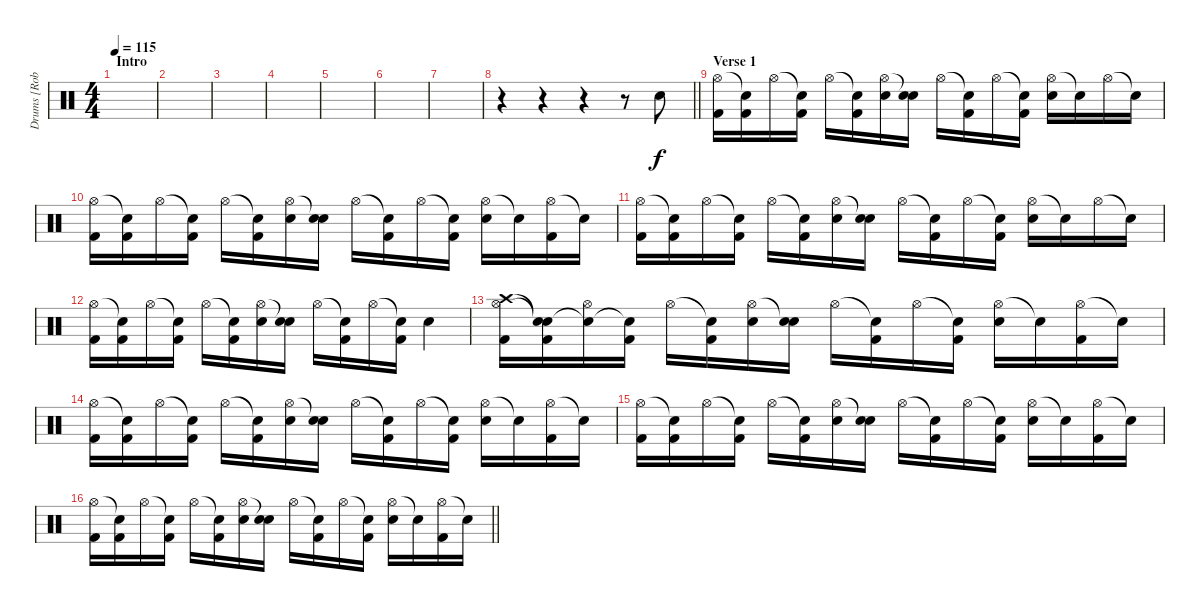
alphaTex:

\track ("Drums [Rob Bourdon]" "Drums [Rob") {instrument percussion}
\staff {score}
\articulation defaults
\ts (4 4)
\section ("" "Intro")
\tempo 115
\clef neutral
\ks c
|
|
|
|
|
|
|
\barLineRight lightlight
r.4 r.4 r.4 r.8 "Electric Snare (hit)".8 |
\section ("" "Verse 1")
("Hi-Hat (open)" "Kick (hit) 2").16 ("Snare (hit)"{t} "Kick (hit) 2").16 "Hi-Hat (open)".16 ("Snare (hit)"{t} "Kick (hit) 2").16 "Hi-Hat (open)".16 ("Snare (hit)"{t} "Kick (hit) 2").16 ("Hi-Hat (open)" "Electric Snare (hit)").16 ("Snare (hit)"{t} "Electric Snare (hit)").16 "Hi-Hat (open)".16 ("Snare (hit)"{t} "Kick (hit) 2").16 "Hi-Hat (open)".16 ("Snare (hit)"{t} "Kick (hit) 2").16 ("Hi-Hat (open)" "Electric Snare (hit)").16 "Snare (hit)"{t}.16 "Hi-Hat (open)".16 "Snare (hit)"{t}.16 |
("Hi-Hat (open)" "Kick (hit) 2").16 ("Snare (hit)"{t} "Kick (hit) 2").16 "Hi-Hat (open)".16 ("Snare (hit)"{t} "Kick (hit) 2").16 "Hi-Hat (open)".16 ("Snare (hit)"{t} "Kick (hit) 2").16 ("Hi-Hat (open)" "Electric Snare (hit)").16 ("Snare (hit)"{t} "Electric Snare (hit)").16 "Hi-Hat (open)".16 ("Snare (hit)"{t} "Kick (hit) 2").16 "Hi-Hat (open)".16 ("Snare (hit)"{t} "Kick (hit) 2").16 ("Hi-Hat (open)" "Electric Snare (hit)").16 "Snare (hit)"{t}.16 ("Hi-Hat (open)" "Kick (hit) 2").16 "Snare (hit)"{t}.16 |
("Hi-Hat (open)" "Kick (hit) 2").16 ("Snare (hit)"{t} "Kick (hit) 2").16 "Hi-Hat (open)".16 ("Snare (hit)"{t} "Kick (hit) 2").16 "Hi-Hat (open)".16 ("Snare (hit)"{t} "Kick (hit) 2").16 ("Hi-Hat (open)" "Electric Snare (hit)").16 ("Snare (hit)"{t} "Electric Snare (hit)").16 "Hi-Hat (open)".16 ("Snare (hit)"{t} "Kick (hit) 2").16 "Hi-Hat (open)".16 ("Snare (hit)"{t} "Kick (hit) 2").16 ("Hi-Hat (open)" "Electric Snare (hit)").16 "Snare (hit)"{t}.16 "Hi-Hat (open)".16 "Snare (hit)"{t}.16 |
("Hi-Hat (open)" "Kick (hit) 2").16 ("Snare (hit)"{t} "Kick (hit) 2").16 "Hi-Hat (open)".16 ("Snare (hit)"{t} "Kick (hit) 2").16 "Hi-Hat (open)".16 ("Snare (hit)"{t} "Kick (hit) 2").16 ("Hi-Hat (open)" "Electric Snare (hit)").16 ("Snare (hit)"{t} "Electric Snare (hit)").16 "Hi-Hat (open)".16 ("Snare (hit)"{t} "Kick (hit) 2").16 "Hi-Hat (open)".16 ("Snare (hit)"{t} "Kick (hit) 2").16 "Electric Snare (hit)".4 |
("Crash high (hit)" "Hi-Hat (open)" "Kick (hit) 2").16 ("Snare (hit)"{t} "Snare (hit)"{t} "Kick (hit) 2").16 ("Snare (hit)"{t} "Hi-Hat (open)").16 ("Snare (hit)"{t} "Kick (hit) 2").16 "Hi-Hat (open)".16 ("Snare (hit)"{t} "Kick (hit) 2").16 ("Hi-Hat (open)" "Electric Snare (hit)").16 ("Snare (hit)"{t} "Electric Snare (hit)").16 "Hi-Hat (open)".16 ("Snare (hit)"{t} "Kick (hit) 2").16 "Hi-Hat (open)".16 ("Snare (hit)"{t} "Kick (hit) 2").16 ("Hi-Hat (open)" "Electric Snare (hit)").16 "Snare (hit)"{t}.16 ("Hi-Hat (open)" "Kick (hit) 2").16 "Snare (hit)"{t}.16 |
("Hi-Hat (open)" "Kick (hit) 2").16 ("Snare (hit)"{t} "Kick (hit) 2").16 "Hi-Hat (open)".16 ("Snare (hit)"{t} "Kick (hit) 2").16 "Hi-Hat (open)".16 ("Snare (hit)"{t} "Kick (hit) 2").16 ("Hi-Hat (open)" "Electric Snare (hit)").16 ("Snare (hit)"{t} "Electric Snare (hit)").16 "Hi-Hat (open)".16 ("Snare (hit)"{t} "Kick (hit) 2").16 "Hi-Hat (open)".16 ("Snare (hit)"{t} "Kick (hit) 2").16 ("Hi-Hat (open)" "Electric Snare (hit)").16 "Snare (hit)"{t}.16 ("Hi-Hat (open)" "Kick (hit) 2").16 "Snare (hit)"{t}.16 |
("Hi-Hat (open)" "Kick (hit) 2").16 ("Snare (hit)"{t} "Kick (hit) 2").16 "Hi-Hat (open)".16 ("Snare (hit)"{t} "Kick (hit) 2").16 "Hi-Hat (open)".16 ("Snare (hit)"{t} "Kick (hit) 2").16 ("Hi-Hat (open)" "Electric Snare (hit)").16 ("Snare (hit)"{t} "Electric Snare (hit)").16 "Hi-Hat (open)".16 ("Snare (hit)"{t} "Kick (hit) 2").16 "Hi-Hat (open)".16 ("Snare (hit)"{t} "Kick (hit) 2").16 ("Hi-Hat (open)" "Electric Snare (hit)").16 "Snare (hit)"{t}.16 ("Hi-Hat (open)" "Kick (hit) 2").16 "Snare (hit)"{t}.16 |
\barLineRight lightlight
("Hi-Hat (open)" "Kick (hit) 2").16 ("Snare (hit)"{t} "Kick (hit) 2").16 "Hi-Hat (open)".16 ("Snare (hit)"{t} "Kick (hit) 2").16 "Hi-Hat (open)".16 ("Snare (hit)"{t} "Kick (hit) 2").16 ("Hi-Hat (open)" "Electric Snare (hit)").16 ("Snare (hit)"{t} "Electric Snare (hit)").16 "Hi-Hat (open)".16 ("Snare (hit)"{t} "Kick (hit) 2").16 "Hi-Hat (open)".16 ("Snare (hit)"{t} "Kick (hit) 2").16 ("Hi-Hat (open)" "Electric Snare (hit)").16 "Snare (hit)"{t}.16 ("Hi-Hat (open)" "Kick (hit) 2").16 "Snare (hit)"{t}.16
